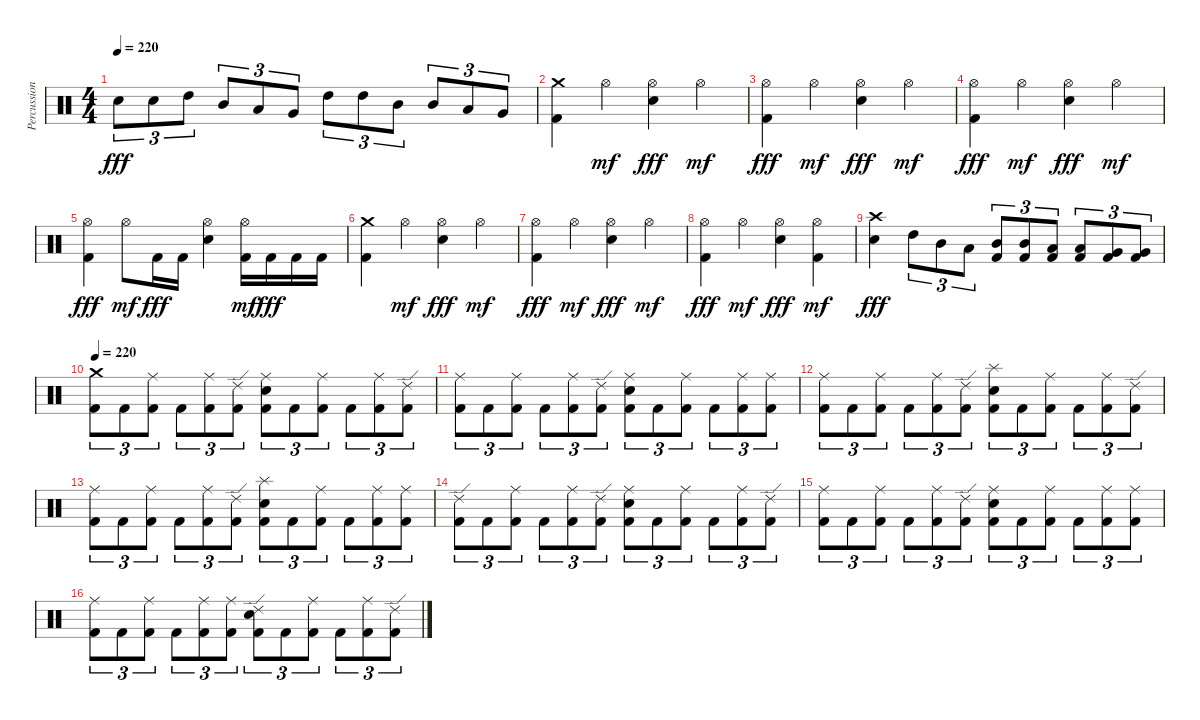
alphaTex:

\track ("Percussion" "Percussion") {instrument percussion}
\staff {score}
\articulation defaults
\ts (4 4)
\tempo 220
\clef neutral
\ks c "Electric Snare (hit)".8{tu (3 2) dy fff} "Electric Snare (hit)".8{tu (3 2)} "High Tom (hit)".8{tu (3 2)} "Mid Tom (hit)".8{tu (3 2)} "Low Tom (hit)".8{tu (3 2)} "Very Low Tom (hit)".8{tu (3 2)} "High Tom (hit)".8{tu (3 2)} "High Tom (hit)".8{tu (3 2)} "Mid Tom (hit)".8{tu (3 2)} "Mid Tom (hit)".8{tu (3 2)} "Low Tom (hit)".8{tu (3 2)} "Very Low Tom (hit)".8{tu (3 2)}
|
("Kick (hit) 2" "Crash medium (hit)").4 "Hi-Hat (open)".4{dy mf} ("Electric Snare (hit)" "Hi-Hat (open)").4{dy fff} "Hi-Hat (open)".4{dy mf} |
("Kick (hit) 2" "Hi-Hat (open)").4{dy fff} "Hi-Hat (open)".4{dy mf} ("Electric Snare (hit)" "Hi-Hat (open)").4{dy fff} "Hi-Hat (open)".4{dy mf} |
("Kick (hit) 2" "Hi-Hat (open)").4{dy fff} "Hi-Hat (open)".4{dy mf} ("Electric Snare (hit)" "Hi-Hat (open)").4{dy fff} "Hi-Hat (open)".4{dy mf} |
("Kick (hit) 2" "Hi-Hat (open)").4{dy fff} "Hi-Hat (open)".8{dy mf} "Kick (hit) 2".16{dy fff} "Kick (hit) 2".16 ("Electric Snare (hit)" "Hi-Hat (open)").4 ("Kick (hit) 2" "Hi-Hat (open)").16{dy mf} "Kick (hit) 2".16{dy fff} "Kick (hit) 2".16 "Kick (hit) 2".16 |
("Kick (hit) 2" "Crash medium (hit)").4 "Hi-Hat (open)".4{dy mf} ("Electric Snare (hit)" "Hi-Hat (open)").4{dy fff} "Hi-Hat (open)".4{dy mf} |
("Kick (hit) 2" "Hi-Hat (open)").4{dy fff} "Hi-Hat (open)".4{dy mf} ("Electric Snare (hit)" "Hi-Hat (open)").4{dy fff} "Hi-Hat (open)".4{dy mf} |
("Kick (hit) 2" "Hi-Hat (open)").4{dy fff} "Hi-Hat (open)".4{dy mf} ("Electric Snare (hit)" "Hi-Hat (open)").4{dy fff} ("Kick (hit) 2" "Hi-Hat (open)").4{dy mf} |
("Electric Snare (hit)" "Crash high (hit)").4{dy fff} "High Tom (hit)".8{tu (3 2)} "Mid Tom (hit)".8{tu (3 2)} "Low Tom (hit)".8{tu (3 2)} ("Kick (hit) 2" "Mid Tom (hit)").8{tu (3 2)} ("Kick (hit) 2" "Mid Tom (hit)").8{tu (3 2)} ("Kick (hit) 2" "Low Tom (hit)").8{tu (3 2)} ("Kick (hit) 2" "Low Tom (hit)").8{tu (3 2)} ("Kick (hit) 2" "Very Low Tom (hit)").8{tu (3 2)} ("Kick (hit) 2" "Very Low Tom (hit)").8{tu (3 2)} |
\tempo 220
("Kick (hit) 2" "Crash medium (hit)").8{tu (3 2)} "Kick (hit) 2".8{tu (3 2)} ("Kick (hit) 2" "Ride (middle)").8{tu (3 2)} "Kick (hit) 2".8{tu (3 2)} ("Kick (hit) 2" "Ride (middle)").8{tu (3 2)} ("Kick (hit) 2" "Ride (edge) 2").8{tu (3 2)} ("Kick (hit) 2" "Electric Snare (hit)" "Ride (middle)").8{tu (3 2)} "Kick (hit) 2".8{tu (3 2)} ("Kick (hit) 2" "Ride (middle)").8{tu (3 2)} "Kick (hit) 2".8{tu (3 2)} ("Kick (hit) 2" "Ride (middle)").8{tu (3 2)} ("Kick (hit) 2" "Ride (edge) 2").8{tu (3 2)} |
("Kick (hit) 2" "Ride (middle)").8{tu (3 2)} "Kick (hit) 2".8{tu (3 2)} ("Kick (hit) 2" "Ride (middle)").8{tu (3 2)} "Kick (hit) 2".8{tu (3 2)} ("Kick (hit) 2" "Ride (middle)").8{tu (3 2)} ("Kick (hit) 2" "Ride (edge) 2").8{tu (3 2)} ("Kick (hit) 2" "Electric Snare (hit)" "Ride (middle)").8{tu (3 2)} "Kick (hit) 2".8{tu (3 2)} ("Kick (hit) 2" "Ride (middle)").8{tu (3 2)} "Kick (hit) 2".8{tu (3 2)} ("Kick (hit) 2" "Ride (middle)").8{tu (3 2)} ("Kick (hit) 2" "Ride (middle)").8{tu (3 2)} |
("Kick (hit) 2" "Ride (middle)").8{tu (3 2)} "Kick (hit) 2".8{tu (3 2)} ("Kick (hit) 2" "Ride (middle)").8{tu (3 2)} "Kick (hit) 2".8{tu (3 2)} ("Kick (hit) 2" "Ride (middle)").8{tu (3 2)} ("Kick (hit) 2" "Ride (edge) 2").8{tu (3 2)} ("Kick (hit) 2" "Electric Snare (hit)" "Splash (hit)").8{tu (3 2)} "Kick (hit) 2".8{tu (3 2)} ("Kick (hit) 2" "Ride (middle)").8{tu (3 2)} "Kick (hit) 2".8{tu (3 2)} ("Kick (hit) 2" "Ride (middle)").8{tu (3 2)} ("Kick (hit) 2" "Ride (edge) 2").8{tu (3 2)} |
("Kick (hit) 2" "Ride (middle)").8{tu (3 2)} "Kick (hit) 2".8{tu (3 2)} ("Kick (hit) 2" "Ride (middle)").8{tu (3 2)} "Kick (hit) 2".8{tu (3 2)} ("Kick (hit) 2" "Ride (middle)").8{tu (3 2)} ("Kick (hit) 2" "Ride (edge) 2").8{tu (3 2)} ("Kick (hit) 2" "Electric Snare (hit)" "Splash (hit)").8{tu (3 2)} "Kick (hit) 2".8{tu (3 2)} ("Kick (hit) 2" "Ride (middle)").8{tu (3 2)} "Kick (hit) 2".8{tu (3 2)} ("Kick (hit) 2" "Ride (middle)").8{tu (3 2)} ("Kick (hit) 2" "Ride (middle)").8{tu (3 2)} |
("Kick (hit) 2" "Ride (edge) 2").8{tu (3 2)} "Kick (hit) 2".8{tu (3 2)} ("Kick (hit) 2" "Ride (middle)").8{tu (3 2)} "Kick (hit) 2".8{tu (3 2)} ("Kick (hit) 2" "Ride (middle)").8{tu (3 2)} ("Kick (hit) 2" "Ride (edge) 2").8{tu (3 2)} ("Kick (hit) 2" "Electric Snare (hit)" "Ride (middle)").8{tu (3 2)} "Kick (hit) 2".8{tu (3 2)} ("Kick (hit) 2" "Ride (middle)").8{tu (3 2)} "Kick (hit) 2".8{tu (3 2)} ("Kick (hit) 2" "Ride (middle)").8{tu (3 2)} ("Kick (hit) 2" "Ride (edge) 2").8{tu (3 2)} |
("Kick (hit) 2" "Ride (middle)").8{tu (3 2)} "Kick (hit) 2".8{tu (3 2)} ("Kick (hit) 2" "Ride (middle)").8{tu (3 2)} "Kick (hit) 2".8{tu (3 2)} ("Kick (hit) 2" "Ride (middle)").8{tu (3 2)} ("Kick (hit) 2" "Ride (edge) 2").8{tu (3 2)} ("Kick (hit) 2" "Electric Snare (hit)" "Ride (middle)").8{tu (3 2)} "Kick (hit) 2".8{tu (3 2)} ("Kick (hit) 2" "Ride (middle)").8{tu (3 2)} "Kick (hit) 2".8{tu (3 2)} ("Kick (hit) 2" "Ride (middle)").8{tu (3 2)} ("Kick (hit) 2" "Ride (middle)").8{tu (3 2)} |
("Kick (hit) 2" "Ride (middle)").8{tu (3 2)} "Kick (hit) 2".8{tu (3 2)} ("Kick (hit) 2" "Ride (middle)").8{tu (3 2)} "Kick (hit) 2".8{tu (3 2)} ("Kick (hit) 2" "Ride (middle)").8{tu (3 2)} ("Kick (hit) 2" "Ride (middle)").8{tu (3 2)} ("Kick (hit) 2" "Electric Snare (hit)" "Ride (edge) 2").8{tu (3 2)} "Kick (hit) 2".8{tu (3 2)} ("Kick (hit) 2" "Ride (middle)").8{tu (3 2)} "Kick (hit) 2".8{tu (3 2)} ("Kick (hit) 2" "Ride (middle)").8{tu (3 2)} ("Kick (hit) 2" "Ride (edge) 2").8{tu (3 2)}
